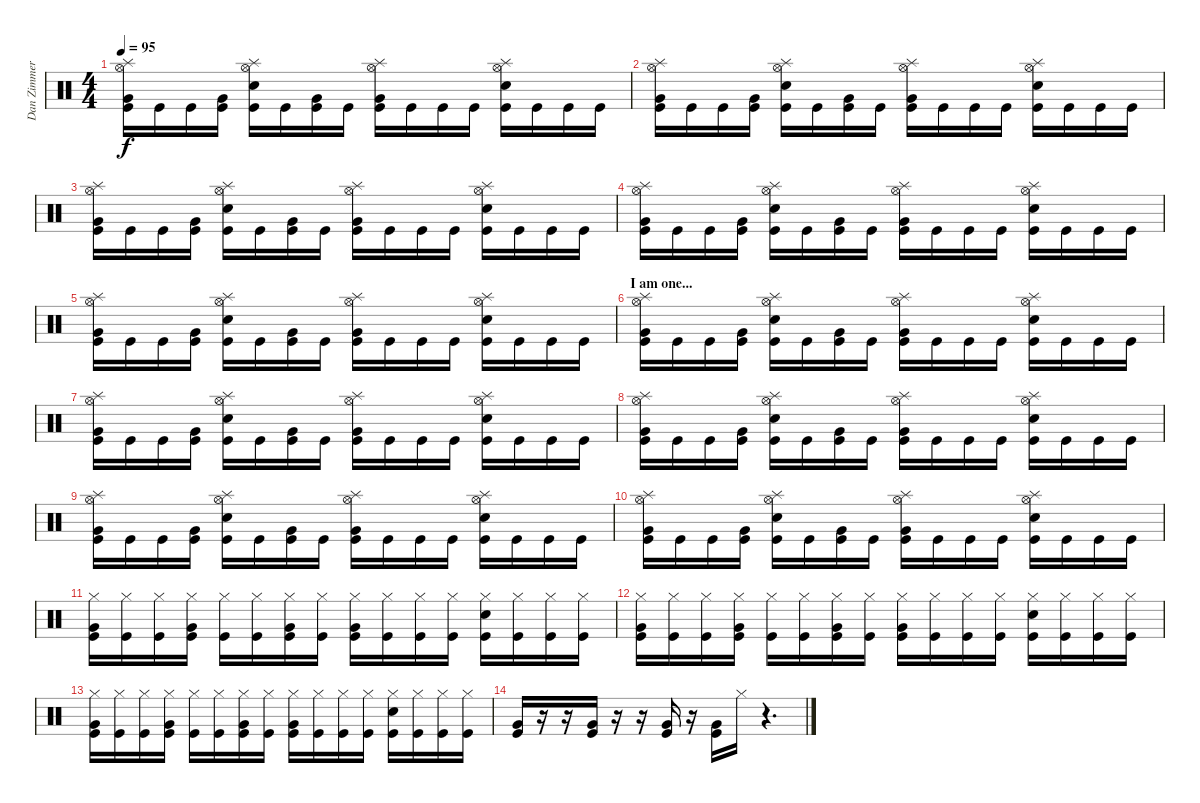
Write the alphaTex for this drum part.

\track ("Dan Zimmermann [drums]" "Dan Zimmer") {instrument percussion}
\staff {score}
\articulation defaults
\ts (4 4)
\tempo 95
\clef neutral
\ks c
("Hi-Hat (open)" "Splash (hit)" "Very Low Tom (hit)" "Kick (hit)").16{dy f} "Kick (hit)".16 "Kick (hit)".16 ("Very Low Tom (hit)" "Kick (hit)").16 ("Hi-Hat (open)" "Splash (hit)" "Snare (hit) 2" "Kick (hit)").16 "Kick (hit)".16 ("Very Low Tom (hit)" "Kick (hit)").16 "Kick (hit)".16 ("Hi-Hat (open)" "Splash (hit)" "Very Low Tom (hit)" "Kick (hit)").16 "Kick (hit)".16 "Kick (hit)".16 "Kick (hit)".16 ("Hi-Hat (open)" "Splash (hit)" "Snare (hit) 2" "Kick (hit)").16 "Kick (hit)".16 "Kick (hit)".16 "Kick (hit)".16 |
("Hi-Hat (open)" "Splash (hit)" "Very Low Tom (hit)" "Kick (hit)").16 "Kick (hit)".16 "Kick (hit)".16 ("Very Low Tom (hit)" "Kick (hit)").16 ("Hi-Hat (open)" "Splash (hit)" "Snare (hit) 2" "Kick (hit)").16 "Kick (hit)".16 ("Very Low Tom (hit)" "Kick (hit)").16 "Kick (hit)".16 ("Hi-Hat (open)" "Splash (hit)" "Very Low Tom (hit)" "Kick (hit)").16 "Kick (hit)".16 "Kick (hit)".16 "Kick (hit)".16 ("Hi-Hat (open)" "Splash (hit)" "Snare (hit) 2" "Kick (hit)").16 "Kick (hit)".16 "Kick (hit)".16 "Kick (hit)".16 |
("Hi-Hat (open)" "Splash (hit)" "Very Low Tom (hit)" "Kick (hit)").16 "Kick (hit)".16 "Kick (hit)".16 ("Very Low Tom (hit)" "Kick (hit)").16 ("Hi-Hat (open)" "Splash (hit)" "Snare (hit) 2" "Kick (hit)").16 "Kick (hit)".16 ("Very Low Tom (hit)" "Kick (hit)").16 "Kick (hit)".16 ("Hi-Hat (open)" "Splash (hit)" "Very Low Tom (hit)" "Kick (hit)").16 "Kick (hit)".16 "Kick (hit)".16 "Kick (hit)".16 ("Hi-Hat (open)" "Splash (hit)" "Snare (hit) 2" "Kick (hit)").16 "Kick (hit)".16 "Kick (hit)".16 "Kick (hit)".16 |
("Hi-Hat (open)" "Splash (hit)" "Very Low Tom (hit)" "Kick (hit)").16 "Kick (hit)".16 "Kick (hit)".16 ("Very Low Tom (hit)" "Kick (hit)").16 ("Hi-Hat (open)" "Splash (hit)" "Snare (hit) 2" "Kick (hit)").16 "Kick (hit)".16 ("Very Low Tom (hit)" "Kick (hit)").16 "Kick (hit)".16 ("Hi-Hat (open)" "Splash (hit)" "Very Low Tom (hit)" "Kick (hit)").16 "Kick (hit)".16 "Kick (hit)".16 "Kick (hit)".16 ("Hi-Hat (open)" "Splash (hit)" "Snare (hit) 2" "Kick (hit)").16 "Kick (hit)".16 "Kick (hit)".16 "Kick (hit)".16 |
("Hi-Hat (open)" "Splash (hit)" "Very Low Tom (hit)" "Kick (hit)").16 "Kick (hit)".16 "Kick (hit)".16 ("Very Low Tom (hit)" "Kick (hit)").16 ("Hi-Hat (open)" "Splash (hit)" "Snare (hit) 2" "Kick (hit)").16 "Kick (hit)".16 ("Very Low Tom (hit)" "Kick (hit)").16 "Kick (hit)".16 ("Hi-Hat (open)" "Splash (hit)" "Very Low Tom (hit)" "Kick (hit)").16 "Kick (hit)".16 "Kick (hit)".16 "Kick (hit)".16 ("Hi-Hat (open)" "Splash (hit)" "Snare (hit) 2" "Kick (hit)").16 "Kick (hit)".16 "Kick (hit)".16 "Kick (hit)".16 |
\section ("" "I am one...")
("Hi-Hat (open)" "Splash (hit)" "Very Low Tom (hit)" "Kick (hit)").16 "Kick (hit)".16 "Kick (hit)".16 ("Very Low Tom (hit)" "Kick (hit)").16 ("Hi-Hat (open)" "Splash (hit)" "Snare (hit) 2" "Kick (hit)").16 "Kick (hit)".16 ("Very Low Tom (hit)" "Kick (hit)").16 "Kick (hit)".16 ("Hi-Hat (open)" "Splash (hit)" "Very Low Tom (hit)" "Kick (hit)").16 "Kick (hit)".16 "Kick (hit)".16 "Kick (hit)".16 ("Hi-Hat (open)" "Splash (hit)" "Snare (hit) 2" "Kick (hit)").16 "Kick (hit)".16 "Kick (hit)".16 "Kick (hit)".16 |
("Hi-Hat (open)" "Splash (hit)" "Very Low Tom (hit)" "Kick (hit)").16 "Kick (hit)".16 "Kick (hit)".16 ("Very Low Tom (hit)" "Kick (hit)").16 ("Hi-Hat (open)" "Splash (hit)" "Snare (hit) 2" "Kick (hit)").16 "Kick (hit)".16 ("Very Low Tom (hit)" "Kick (hit)").16 "Kick (hit)".16 ("Hi-Hat (open)" "Splash (hit)" "Very Low Tom (hit)" "Kick (hit)").16 "Kick (hit)".16 "Kick (hit)".16 "Kick (hit)".16 ("Hi-Hat (open)" "Splash (hit)" "Snare (hit) 2" "Kick (hit)").16 "Kick (hit)".16 "Kick (hit)".16 "Kick (hit)".16 |
("Hi-Hat (open)" "Splash (hit)" "Very Low Tom (hit)" "Kick (hit)").16 "Kick (hit)".16 "Kick (hit)".16 ("Very Low Tom (hit)" "Kick (hit)").16 ("Hi-Hat (open)" "Splash (hit)" "Snare (hit) 2" "Kick (hit)").16 "Kick (hit)".16 ("Very Low Tom (hit)" "Kick (hit)").16 "Kick (hit)".16 ("Hi-Hat (open)" "Splash (hit)" "Very Low Tom (hit)" "Kick (hit)").16 "Kick (hit)".16 "Kick (hit)".16 "Kick (hit)".16 ("Hi-Hat (open)" "Splash (hit)" "Snare (hit) 2" "Kick (hit)").16 "Kick (hit)".16 "Kick (hit)".16 "Kick (hit)".16 |
("Hi-Hat (open)" "Splash (hit)" "Very Low Tom (hit)" "Kick (hit)").16 "Kick (hit)".16 "Kick (hit)".16 ("Very Low Tom (hit)" "Kick (hit)").16 ("Hi-Hat (open)" "Splash (hit)" "Snare (hit) 2" "Kick (hit)").16 "Kick (hit)".16 ("Very Low Tom (hit)" "Kick (hit)").16 "Kick (hit)".16 ("Hi-Hat (open)" "Splash (hit)" "Very Low Tom (hit)" "Kick (hit)").16 "Kick (hit)".16 "Kick (hit)".16 "Kick (hit)".16 ("Hi-Hat (open)" "Splash (hit)" "Snare (hit) 2" "Kick (hit)").16 "Kick (hit)".16 "Kick (hit)".16 "Kick (hit)".16 |
("Hi-Hat (open)" "Splash (hit)" "Very Low Tom (hit)" "Kick (hit)").16 "Kick (hit)".16 "Kick (hit)".16 ("Very Low Tom (hit)" "Kick (hit)").16 ("Hi-Hat (open)" "Splash (hit)" "Snare (hit) 2" "Kick (hit)").16 "Kick (hit)".16 ("Very Low Tom (hit)" "Kick (hit)").16 "Kick (hit)".16 ("Hi-Hat (open)" "Splash (hit)" "Very Low Tom (hit)" "Kick (hit)").16 "Kick (hit)".16 "Kick (hit)".16 "Kick (hit)".16 ("Hi-Hat (open)" "Splash (hit)" "Snare (hit) 2" "Kick (hit)").16 "Kick (hit)".16 "Kick (hit)".16 "Kick (hit)".16 |
("Hi-Hat (closed)" "Very Low Tom (hit)" "Kick (hit)").16 ("Hi-Hat (closed)" "Kick (hit)").16 ("Hi-Hat (closed)" "Kick (hit)").16 ("Hi-Hat (closed)" "Very Low Tom (hit)" "Kick (hit)").16 ("Hi-Hat (closed)" "Kick (hit)").16 ("Hi-Hat (closed)" "Kick (hit)").16 ("Hi-Hat (closed)" "Very Low Tom (hit)" "Kick (hit)").16 ("Hi-Hat (closed)" "Kick (hit)").16 ("Hi-Hat (closed)" "Very Low Tom (hit)" "Kick (hit)").16 ("Hi-Hat (closed)" "Kick (hit)").16 ("Hi-Hat (closed)" "Kick (hit)").16 ("Hi-Hat (closed)" "Kick (hit)").16 ("Hi-Hat (closed)" "Snare (hit) 2" "Kick (hit)").16 ("Hi-Hat (closed)" "Kick (hit)").16 ("Hi-Hat (closed)" "Kick (hit)").16 ("Hi-Hat (closed)" "Kick (hit)").16 |
("Hi-Hat (closed)" "Very Low Tom (hit)" "Kick (hit)").16 ("Hi-Hat (closed)" "Kick (hit)").16 ("Hi-Hat (closed)" "Kick (hit)").16 ("Hi-Hat (closed)" "Very Low Tom (hit)" "Kick (hit)").16 ("Hi-Hat (closed)" "Kick (hit)").16 ("Hi-Hat (closed)" "Kick (hit)").16 ("Hi-Hat (closed)" "Very Low Tom (hit)" "Kick (hit)").16 ("Hi-Hat (closed)" "Kick (hit)").16 ("Hi-Hat (closed)" "Very Low Tom (hit)" "Kick (hit)").16 ("Hi-Hat (closed)" "Kick (hit)").16 ("Hi-Hat (closed)" "Kick (hit)").16 ("Hi-Hat (closed)" "Kick (hit)").16 ("Hi-Hat (closed)" "Snare (hit) 2" "Kick (hit)").16 ("Hi-Hat (closed)" "Kick (hit)").16 ("Hi-Hat (closed)" "Kick (hit)").16 ("Hi-Hat (closed)" "Kick (hit)").16 |
("Hi-Hat (closed)" "Very Low Tom (hit)" "Kick (hit)").16 ("Hi-Hat (closed)" "Kick (hit)").16 ("Hi-Hat (closed)" "Kick (hit)").16 ("Hi-Hat (closed)" "Very Low Tom (hit)" "Kick (hit)").16 ("Hi-Hat (closed)" "Kick (hit)").16 ("Hi-Hat (closed)" "Kick (hit)").16 ("Hi-Hat (closed)" "Very Low Tom (hit)" "Kick (hit)").16 ("Hi-Hat (closed)" "Kick (hit)").16 ("Hi-Hat (closed)" "Very Low Tom (hit)" "Kick (hit)").16 ("Hi-Hat (closed)" "Kick (hit)").16 ("Hi-Hat (closed)" "Kick (hit)").16 ("Hi-Hat (closed)" "Kick (hit)").16 ("Hi-Hat (closed)" "Snare (hit) 2" "Kick (hit)").16 ("Hi-Hat (closed)" "Kick (hit)").16 ("Hi-Hat (closed)" "Kick (hit)").16 ("Hi-Hat (closed)" "Kick (hit)").16 |
("Very Low Tom (hit)" "Kick (hit)").16 r.16 r.16 ("Very Low Tom (hit)" "Kick (hit)").16 r.16 r.16 ("Very Low Tom (hit)" "Kick (hit)").16 r.16 ("Very Low Tom (hit)" "Kick (hit)").16 "Hi-Hat (closed)".16 r.4{d}
